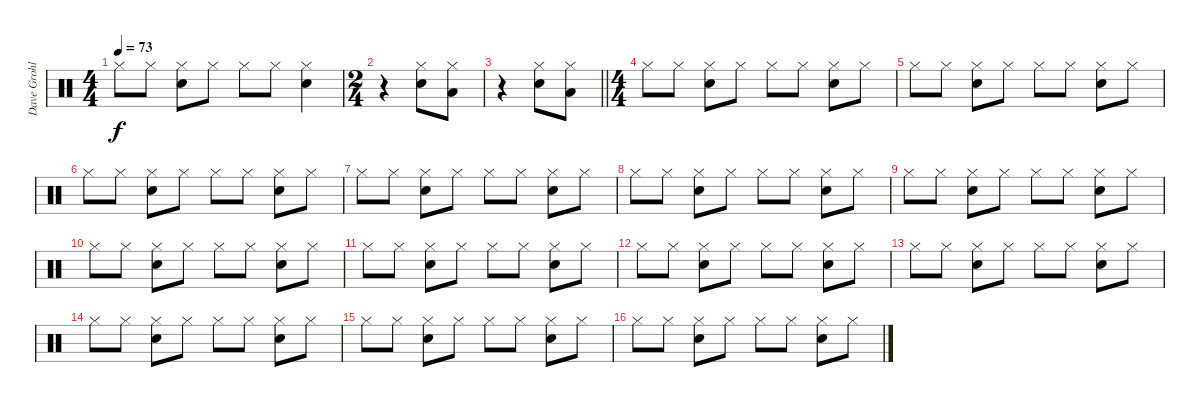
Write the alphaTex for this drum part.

\track ("Dave Grohl (Nirvana)" "Dave Grohl") {instrument percussion}
\staff {score}
\articulation defaults
\ts (4 4)
\tempo 73
\clef neutral
\ks c "Hi-Hat (closed)".8{dy f} "Hi-Hat (closed)".8
("Electric Snare (hit)" "Hi-Hat (closed)").8 "Hi-Hat (closed)".8 "Hi-Hat (closed)".8 "Hi-Hat (closed)".8 ("Electric Snare (hit)" "Hi-Hat (closed)").4 |
\ts (2 4)
r.4 ("Electric Snare (hit)" "Hi-Hat (closed)").8 ("Low Tom (hit)" "Hi-Hat (closed)").8 |
\barLineRight lightlight
r.4 ("Electric Snare (hit)" "Hi-Hat (closed)").8 ("Low Tom (hit)" "Hi-Hat (closed)").8 |
\ts (4 4)
"Hi-Hat (closed)".8 "Hi-Hat (closed)".8 ("Electric Snare (hit)" "Hi-Hat (closed)").8 "Hi-Hat (closed)".8 "Hi-Hat (closed)".8 "Hi-Hat (closed)".8 ("Electric Snare (hit)" "Hi-Hat (closed)").8 "Hi-Hat (closed)".8 |
"Hi-Hat (closed)".8 "Hi-Hat (closed)".8 ("Electric Snare (hit)" "Hi-Hat (closed)").8 "Hi-Hat (closed)".8 "Hi-Hat (closed)".8 "Hi-Hat (closed)".8 ("Electric Snare (hit)" "Hi-Hat (closed)").8 "Hi-Hat (closed)".8 |
"Hi-Hat (closed)".8 "Hi-Hat (closed)".8 ("Electric Snare (hit)" "Hi-Hat (closed)").8 "Hi-Hat (closed)".8 "Hi-Hat (closed)".8 "Hi-Hat (closed)".8 ("Electric Snare (hit)" "Hi-Hat (closed)").8 "Hi-Hat (closed)".8 |
"Hi-Hat (closed)".8 "Hi-Hat (closed)".8 ("Electric Snare (hit)" "Hi-Hat (closed)").8 "Hi-Hat (closed)".8 "Hi-Hat (closed)".8 "Hi-Hat (closed)".8 ("Electric Snare (hit)" "Hi-Hat (closed)").8 "Hi-Hat (closed)".8 |
"Hi-Hat (closed)".8 "Hi-Hat (closed)".8 ("Electric Snare (hit)" "Hi-Hat (closed)").8 "Hi-Hat (closed)".8 "Hi-Hat (closed)".8 "Hi-Hat (closed)".8 ("Electric Snare (hit)" "Hi-Hat (closed)").8 "Hi-Hat (closed)".8 |
"Hi-Hat (closed)".8 "Hi-Hat (closed)".8 ("Electric Snare (hit)" "Hi-Hat (closed)").8 "Hi-Hat (closed)".8 "Hi-Hat (closed)".8 "Hi-Hat (closed)".8 ("Electric Snare (hit)" "Hi-Hat (closed)").8 "Hi-Hat (closed)".8 |
"Hi-Hat (closed)".8 "Hi-Hat (closed)".8 ("Electric Snare (hit)" "Hi-Hat (closed)").8 "Hi-Hat (closed)".8 "Hi-Hat (closed)".8 "Hi-Hat (closed)".8 ("Electric Snare (hit)" "Hi-Hat (closed)").8 "Hi-Hat (closed)".8 |
"Hi-Hat (closed)".8 "Hi-Hat (closed)".8 ("Electric Snare (hit)" "Hi-Hat (closed)").8 "Hi-Hat (closed)".8 "Hi-Hat (closed)".8 "Hi-Hat (closed)".8 ("Electric Snare (hit)" "Hi-Hat (closed)").8 "Hi-Hat (closed)".8 |
"Hi-Hat (closed)".8 "Hi-Hat (closed)".8 ("Electric Snare (hit)" "Hi-Hat (closed)").8 "Hi-Hat (closed)".8 "Hi-Hat (closed)".8 "Hi-Hat (closed)".8 ("Electric Snare (hit)" "Hi-Hat (closed)").8 "Hi-Hat (closed)".8 |
"Hi-Hat (closed)".8 "Hi-Hat (closed)".8 ("Electric Snare (hit)" "Hi-Hat (closed)").8 "Hi-Hat (closed)".8 "Hi-Hat (closed)".8 "Hi-Hat (closed)".8 ("Electric Snare (hit)" "Hi-Hat (closed)").8 "Hi-Hat (closed)".8 |
"Hi-Hat (closed)".8 "Hi-Hat (closed)".8 ("Electric Snare (hit)" "Hi-Hat (closed)").8 "Hi-Hat (closed)".8 "Hi-Hat (closed)".8 "Hi-Hat (closed)".8 ("Electric Snare (hit)" "Hi-Hat (closed)").8 "Hi-Hat (closed)".8 |
"Hi-Hat (closed)".8 "Hi-Hat (closed)".8 ("Electric Snare (hit)" "Hi-Hat (closed)").8 "Hi-Hat (closed)".8 "Hi-Hat (closed)".8 "Hi-Hat (closed)".8 ("Electric Snare (hit)" "Hi-Hat (closed)").8 "Hi-Hat (closed)".8 |
"Hi-Hat (closed)".8 "Hi-Hat (closed)".8 ("Electric Snare (hit)" "Hi-Hat (closed)").8 "Hi-Hat (closed)".8 "Hi-Hat (closed)".8 "Hi-Hat (closed)".8 ("Electric Snare (hit)" "Hi-Hat (closed)").8 "Hi-Hat (closed)".8
